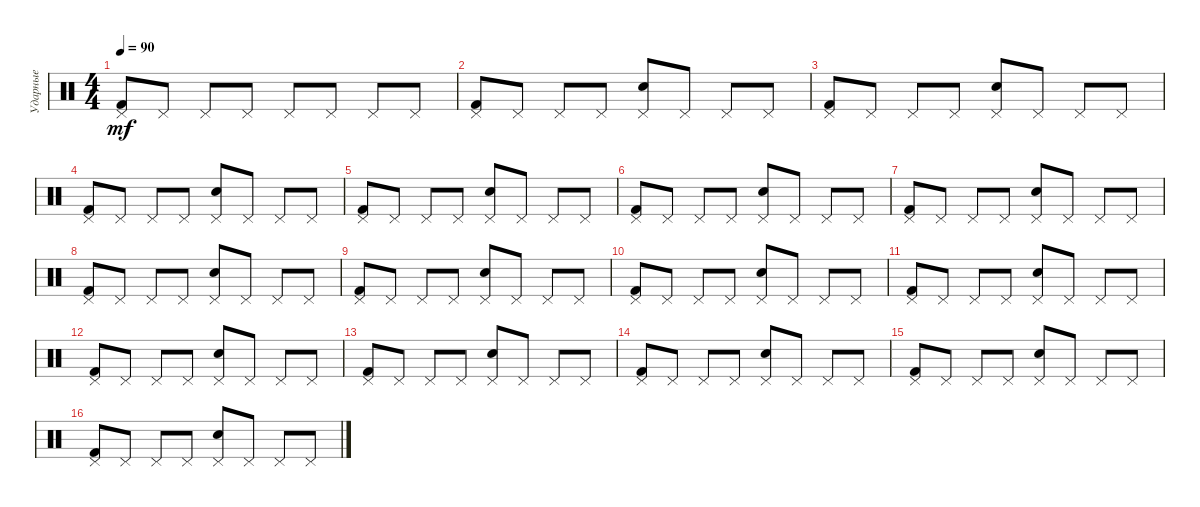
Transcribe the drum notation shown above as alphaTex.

\track ("Ударные" "Ударные") {instrument percussion}
\staff {score}
\articulation defaults
\ts (4 4)
\tempo 90
\clef neutral
\ks c
("Pedal Hi-Hat (hit)" "Kick (hit) 2").8{dy mf} "Pedal Hi-Hat (hit)".8 "Pedal Hi-Hat (hit)".8 "Pedal Hi-Hat (hit)".8 "Pedal Hi-Hat (hit)".8 "Pedal Hi-Hat (hit)".8 "Pedal Hi-Hat (hit)".8 "Pedal Hi-Hat (hit)".8 |
("Pedal Hi-Hat (hit)" "Kick (hit) 2").8 "Pedal Hi-Hat (hit)".8 "Pedal Hi-Hat (hit)".8 "Pedal Hi-Hat (hit)".8 ("Pedal Hi-Hat (hit)" "Snare (hit) 2").8 "Pedal Hi-Hat (hit)".8 "Pedal Hi-Hat (hit)".8 "Pedal Hi-Hat (hit)".8 |
("Pedal Hi-Hat (hit)" "Kick (hit) 2").8 "Pedal Hi-Hat (hit)".8 "Pedal Hi-Hat (hit)".8 "Pedal Hi-Hat (hit)".8 ("Pedal Hi-Hat (hit)" "Snare (hit) 2").8 "Pedal Hi-Hat (hit)".8 "Pedal Hi-Hat (hit)".8 "Pedal Hi-Hat (hit)".8 |
("Pedal Hi-Hat (hit)" "Kick (hit) 2").8 "Pedal Hi-Hat (hit)".8 "Pedal Hi-Hat (hit)".8 "Pedal Hi-Hat (hit)".8 ("Pedal Hi-Hat (hit)" "Snare (hit) 2").8 "Pedal Hi-Hat (hit)".8 "Pedal Hi-Hat (hit)".8 "Pedal Hi-Hat (hit)".8 |
("Pedal Hi-Hat (hit)" "Kick (hit) 2").8 "Pedal Hi-Hat (hit)".8 "Pedal Hi-Hat (hit)".8 "Pedal Hi-Hat (hit)".8 ("Pedal Hi-Hat (hit)" "Snare (hit) 2").8 "Pedal Hi-Hat (hit)".8 "Pedal Hi-Hat (hit)".8 "Pedal Hi-Hat (hit)".8 |
("Pedal Hi-Hat (hit)" "Kick (hit) 2").8 "Pedal Hi-Hat (hit)".8 "Pedal Hi-Hat (hit)".8 "Pedal Hi-Hat (hit)".8 ("Pedal Hi-Hat (hit)" "Snare (hit) 2").8 "Pedal Hi-Hat (hit)".8 "Pedal Hi-Hat (hit)".8 "Pedal Hi-Hat (hit)".8 |
("Pedal Hi-Hat (hit)" "Kick (hit) 2").8 "Pedal Hi-Hat (hit)".8 "Pedal Hi-Hat (hit)".8 "Pedal Hi-Hat (hit)".8 ("Pedal Hi-Hat (hit)" "Snare (hit) 2").8 "Pedal Hi-Hat (hit)".8 "Pedal Hi-Hat (hit)".8 "Pedal Hi-Hat (hit)".8 |
("Pedal Hi-Hat (hit)" "Kick (hit) 2").8 "Pedal Hi-Hat (hit)".8 "Pedal Hi-Hat (hit)".8 "Pedal Hi-Hat (hit)".8 ("Pedal Hi-Hat (hit)" "Snare (hit) 2").8 "Pedal Hi-Hat (hit)".8 "Pedal Hi-Hat (hit)".8 "Pedal Hi-Hat (hit)".8 |
("Pedal Hi-Hat (hit)" "Kick (hit) 2").8 "Pedal Hi-Hat (hit)".8 "Pedal Hi-Hat (hit)".8 "Pedal Hi-Hat (hit)".8 ("Pedal Hi-Hat (hit)" "Snare (hit) 2").8 "Pedal Hi-Hat (hit)".8 "Pedal Hi-Hat (hit)".8 "Pedal Hi-Hat (hit)".8 |
("Pedal Hi-Hat (hit)" "Kick (hit) 2").8 "Pedal Hi-Hat (hit)".8 "Pedal Hi-Hat (hit)".8 "Pedal Hi-Hat (hit)".8 ("Pedal Hi-Hat (hit)" "Snare (hit) 2").8 "Pedal Hi-Hat (hit)".8 "Pedal Hi-Hat (hit)".8 "Pedal Hi-Hat (hit)".8 |
("Pedal Hi-Hat (hit)" "Kick (hit) 2").8 "Pedal Hi-Hat (hit)".8 "Pedal Hi-Hat (hit)".8 "Pedal Hi-Hat (hit)".8 ("Pedal Hi-Hat (hit)" "Snare (hit) 2").8 "Pedal Hi-Hat (hit)".8 "Pedal Hi-Hat (hit)".8 "Pedal Hi-Hat (hit)".8 |
("Pedal Hi-Hat (hit)" "Kick (hit) 2").8 "Pedal Hi-Hat (hit)".8 "Pedal Hi-Hat (hit)".8 "Pedal Hi-Hat (hit)".8 ("Pedal Hi-Hat (hit)" "Snare (hit) 2").8 "Pedal Hi-Hat (hit)".8 "Pedal Hi-Hat (hit)".8 "Pedal Hi-Hat (hit)".8 |
("Pedal Hi-Hat (hit)" "Kick (hit) 2").8 "Pedal Hi-Hat (hit)".8 "Pedal Hi-Hat (hit)".8 "Pedal Hi-Hat (hit)".8 ("Pedal Hi-Hat (hit)" "Snare (hit) 2").8 "Pedal Hi-Hat (hit)".8 "Pedal Hi-Hat (hit)".8 "Pedal Hi-Hat (hit)".8 |
("Pedal Hi-Hat (hit)" "Kick (hit) 2").8 "Pedal Hi-Hat (hit)".8 "Pedal Hi-Hat (hit)".8 "Pedal Hi-Hat (hit)".8 ("Pedal Hi-Hat (hit)" "Snare (hit) 2").8 "Pedal Hi-Hat (hit)".8 "Pedal Hi-Hat (hit)".8 "Pedal Hi-Hat (hit)".8 |
("Pedal Hi-Hat (hit)" "Kick (hit) 2").8 "Pedal Hi-Hat (hit)".8 "Pedal Hi-Hat (hit)".8 "Pedal Hi-Hat (hit)".8 ("Pedal Hi-Hat (hit)" "Snare (hit) 2").8 "Pedal Hi-Hat (hit)".8 "Pedal Hi-Hat (hit)".8 "Pedal Hi-Hat (hit)".8 |
("Pedal Hi-Hat (hit)" "Kick (hit) 2").8 "Pedal Hi-Hat (hit)".8 "Pedal Hi-Hat (hit)".8 "Pedal Hi-Hat (hit)".8 ("Pedal Hi-Hat (hit)" "Snare (hit) 2").8 "Pedal Hi-Hat (hit)".8 "Pedal Hi-Hat (hit)".8 "Pedal Hi-Hat (hit)".8
